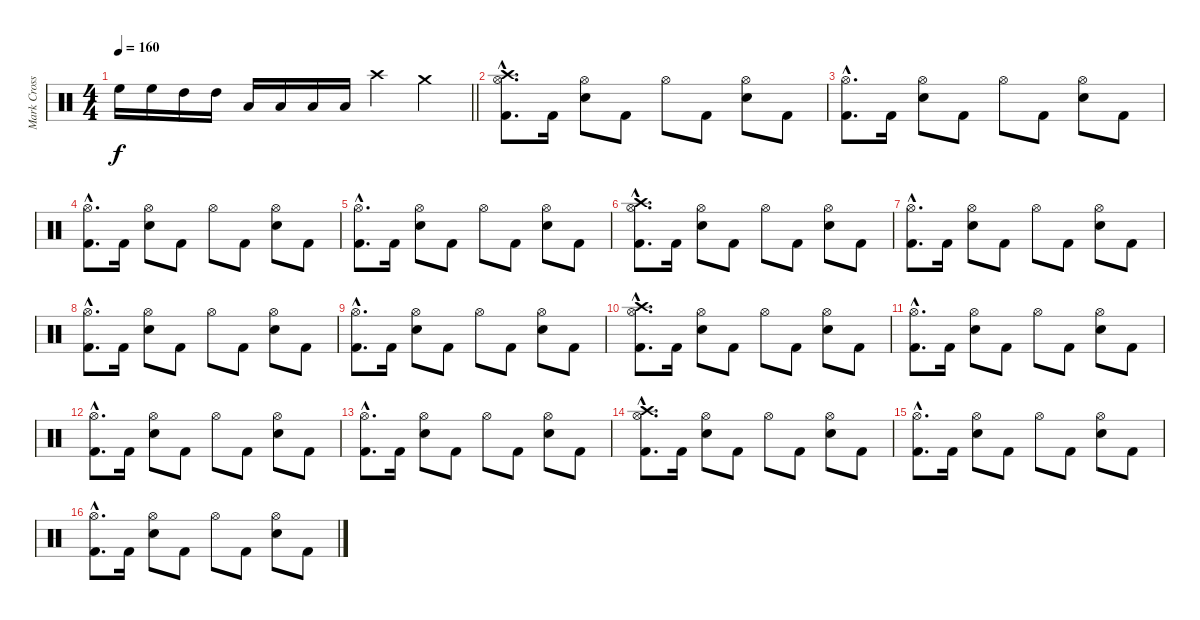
\track ("Mark Cross" "Mark Cross") {instrument percussion}
\staff {score}
\articulation defaults
\ts (4 4)
\tempo 160
\clef neutral
\barLineRight lightlight
\ks aminor "High Floor Tom (hit)".16{dy f} "High Floor Tom (hit)".16 "High Tom (hit)".16 "High Tom (hit)".16 "Low Tom (hit)".16 "Low Tom (hit)".16 "Low Tom (hit)".16 "Low Tom (hit)".16 "Crash high (hit)".4 "Crash medium (hit)".4
|
\section ("" "")
("Crash high (hit)"{hac} "Hi-Hat (open)"{hac} "Kick (hit) 2"{hac}).8{d} "Kick (hit) 2".16 ("Hi-Hat (open)" "Electric Snare (hit)").8 "Kick (hit) 2".8 "Hi-Hat (open)".8 "Kick (hit) 2".8 ("Hi-Hat (open)" "Electric Snare (hit)").8 "Kick (hit) 2".8 |
("Hi-Hat (open)"{hac} "Kick (hit) 2"{hac}).8{d} "Kick (hit) 2".16 ("Hi-Hat (open)" "Electric Snare (hit)").8 "Kick (hit) 2".8 "Hi-Hat (open)".8 "Kick (hit) 2".8 ("Hi-Hat (open)" "Electric Snare (hit)").8 "Kick (hit) 2".8 |
("Hi-Hat (open)"{hac} "Kick (hit) 2"{hac}).8{d} "Kick (hit) 2".16 ("Hi-Hat (open)" "Electric Snare (hit)").8 "Kick (hit) 2".8 "Hi-Hat (open)".8 "Kick (hit) 2".8 ("Hi-Hat (open)" "Electric Snare (hit)").8 "Kick (hit) 2".8 |
("Hi-Hat (open)"{hac} "Kick (hit) 2"{hac}).8{d} "Kick (hit) 2".16 ("Hi-Hat (open)" "Electric Snare (hit)").8 "Kick (hit) 2".8 "Hi-Hat (open)".8 "Kick (hit) 2".8 ("Hi-Hat (open)" "Electric Snare (hit)").8 "Kick (hit) 2".8 |
("Crash high (hit)"{hac} "Hi-Hat (open)"{hac} "Kick (hit) 2"{hac}).8{d} "Kick (hit) 2".16 ("Hi-Hat (open)" "Electric Snare (hit)").8 "Kick (hit) 2".8 "Hi-Hat (open)".8 "Kick (hit) 2".8 ("Hi-Hat (open)" "Electric Snare (hit)").8 "Kick (hit) 2".8 |
("Hi-Hat (open)"{hac} "Kick (hit) 2"{hac}).8{d} "Kick (hit) 2".16 ("Hi-Hat (open)" "Electric Snare (hit)").8 "Kick (hit) 2".8 "Hi-Hat (open)".8 "Kick (hit) 2".8 ("Hi-Hat (open)" "Electric Snare (hit)").8 "Kick (hit) 2".8 |
("Hi-Hat (open)"{hac} "Kick (hit) 2"{hac}).8{d} "Kick (hit) 2".16 ("Hi-Hat (open)" "Electric Snare (hit)").8 "Kick (hit) 2".8 "Hi-Hat (open)".8 "Kick (hit) 2".8 ("Hi-Hat (open)" "Electric Snare (hit)").8 "Kick (hit) 2".8 |
("Hi-Hat (open)"{hac} "Kick (hit) 2"{hac}).8{d} "Kick (hit) 2".16 ("Hi-Hat (open)" "Electric Snare (hit)").8 "Kick (hit) 2".8 "Hi-Hat (open)".8 "Kick (hit) 2".8 ("Hi-Hat (open)" "Electric Snare (hit)").8 "Kick (hit) 2".8 |
("Crash high (hit)"{hac} "Hi-Hat (open)"{hac} "Kick (hit) 2"{hac}).8{d} "Kick (hit) 2".16 ("Hi-Hat (open)" "Electric Snare (hit)").8 "Kick (hit) 2".8 "Hi-Hat (open)".8 "Kick (hit) 2".8 ("Hi-Hat (open)" "Electric Snare (hit)").8 "Kick (hit) 2".8 |
("Hi-Hat (open)"{hac} "Kick (hit) 2"{hac}).8{d} "Kick (hit) 2".16 ("Hi-Hat (open)" "Electric Snare (hit)").8 "Kick (hit) 2".8 "Hi-Hat (open)".8 "Kick (hit) 2".8 ("Hi-Hat (open)" "Electric Snare (hit)").8 "Kick (hit) 2".8 |
("Hi-Hat (open)"{hac} "Kick (hit) 2"{hac}).8{d} "Kick (hit) 2".16 ("Hi-Hat (open)" "Electric Snare (hit)").8 "Kick (hit) 2".8 "Hi-Hat (open)".8 "Kick (hit) 2".8 ("Hi-Hat (open)" "Electric Snare (hit)").8 "Kick (hit) 2".8 |
("Hi-Hat (open)"{hac} "Kick (hit) 2"{hac}).8{d} "Kick (hit) 2".16 ("Hi-Hat (open)" "Electric Snare (hit)").8 "Kick (hit) 2".8 "Hi-Hat (open)".8 "Kick (hit) 2".8 ("Hi-Hat (open)" "Electric Snare (hit)").8 "Kick (hit) 2".8 |
("Crash high (hit)"{hac} "Hi-Hat (open)"{hac} "Kick (hit) 2"{hac}).8{d} "Kick (hit) 2".16 ("Hi-Hat (open)" "Electric Snare (hit)").8 "Kick (hit) 2".8 "Hi-Hat (open)".8 "Kick (hit) 2".8 ("Hi-Hat (open)" "Electric Snare (hit)").8 "Kick (hit) 2".8 |
("Hi-Hat (open)"{hac} "Kick (hit) 2"{hac}).8{d} "Kick (hit) 2".16 ("Hi-Hat (open)" "Electric Snare (hit)").8 "Kick (hit) 2".8 "Hi-Hat (open)".8 "Kick (hit) 2".8 ("Hi-Hat (open)" "Electric Snare (hit)").8 "Kick (hit) 2".8 |
("Hi-Hat (open)"{hac} "Kick (hit) 2"{hac}).8{d} "Kick (hit) 2".16 ("Hi-Hat (open)" "Electric Snare (hit)").8 "Kick (hit) 2".8 "Hi-Hat (open)".8 "Kick (hit) 2".8 ("Hi-Hat (open)" "Electric Snare (hit)").8 "Kick (hit) 2".8
